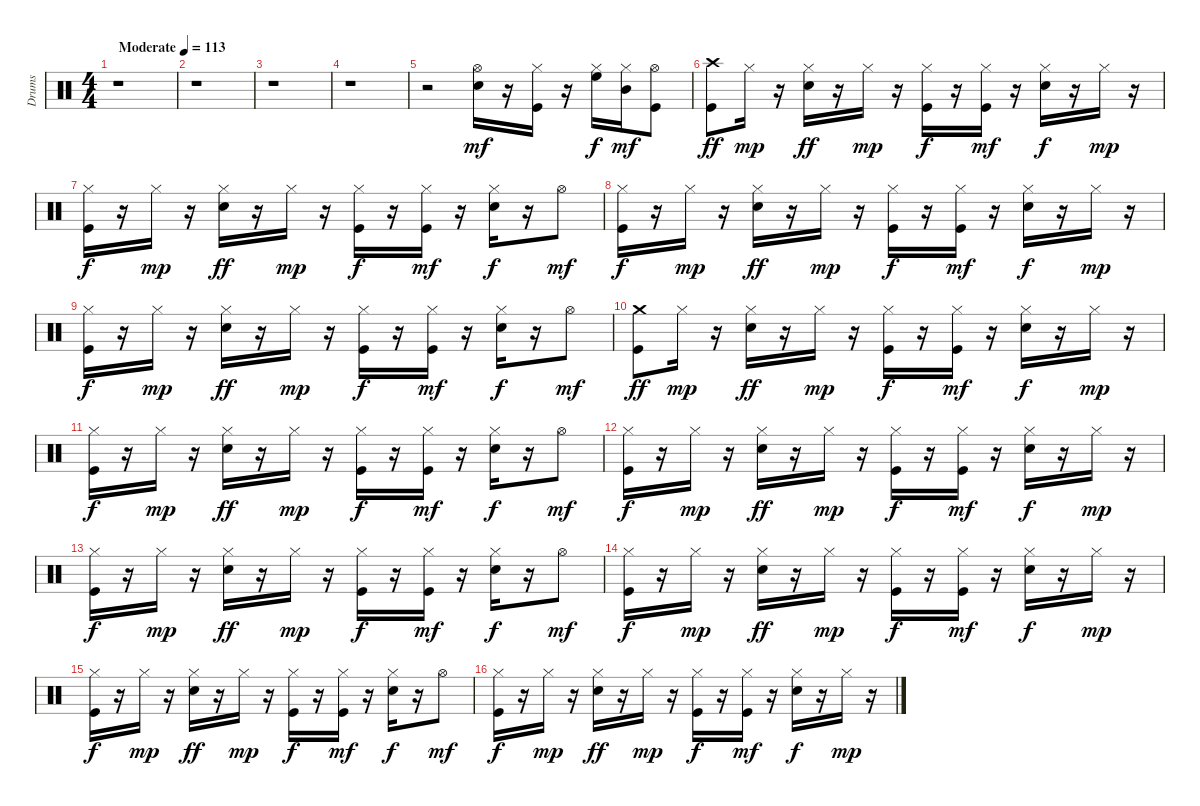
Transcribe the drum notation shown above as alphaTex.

\track ("Drums" "Drums") {instrument percussion}
\staff {score}
\articulation defaults
\ts (4 4)
\tempo (113 "Moderate")
\clef neutral
\ks c
r.1{dy mf} |
r.1 |
r.1 |
r.1 |
r.2 ("Electric Snare (hit)" "Hi-Hat (open)").16 r.16 ("Hi-Hat (closed)" "Kick (hit)").16 r.16 ("Hi-Hat (closed)" "High Floor Tom (hit)").16{dy f} ("Hi-Hat (closed)" "Mid Tom (hit)").16{dy mf} ("Hi-Hat (open)" "Kick (hit)").8 |
("Crash high (hit)" "Kick (hit)").8{dy ff} "Hi-Hat (closed)".16{dy mp} r.16 ("Electric Snare (hit)" "Hi-Hat (closed)").16{dy ff} r.16 "Hi-Hat (closed)".16{dy mp} r.16 ("Hi-Hat (closed)" "Kick (hit)").16{dy f} r.16 ("Hi-Hat (closed)" "Kick (hit)").16{dy mf} r.16 ("Electric Snare (hit)" "Hi-Hat (closed)").16{dy f} r.16 "Hi-Hat (closed)".16{dy mp} r.16 |
("Hi-Hat (closed)" "Kick (hit)").16{dy f} r.16 "Hi-Hat (closed)".16{dy mp} r.16 ("Electric Snare (hit)" "Hi-Hat (closed)").16{dy ff} r.16 "Hi-Hat (closed)".16{dy mp} r.16 ("Hi-Hat (closed)" "Kick (hit)").16{dy f} r.16 ("Hi-Hat (closed)" "Kick (hit)").16{dy mf} r.16 ("Electric Snare (hit)" "Hi-Hat (closed)").16{dy f} r.16 "Hi-Hat (open)".8{dy mf} |
("Hi-Hat (closed)" "Kick (hit)").16{dy f} r.16 "Hi-Hat (closed)".16{dy mp} r.16 ("Electric Snare (hit)" "Hi-Hat (closed)").16{dy ff} r.16 "Hi-Hat (closed)".16{dy mp} r.16 ("Hi-Hat (closed)" "Kick (hit)").16{dy f} r.16 ("Hi-Hat (closed)" "Kick (hit)").16{dy mf} r.16 ("Electric Snare (hit)" "Hi-Hat (closed)").16{dy f} r.16 "Hi-Hat (closed)".16{dy mp} r.16 |
("Hi-Hat (closed)" "Kick (hit)").16{dy f} r.16 "Hi-Hat (closed)".16{dy mp} r.16 ("Electric Snare (hit)" "Hi-Hat (closed)").16{dy ff} r.16 "Hi-Hat (closed)".16{dy mp} r.16 ("Hi-Hat (closed)" "Kick (hit)").16{dy f} r.16 ("Hi-Hat (closed)" "Kick (hit)").16{dy mf} r.16 ("Electric Snare (hit)" "Hi-Hat (closed)").16{dy f} r.16 "Hi-Hat (open)".8{dy mf} |
("Crash medium (hit)" "Kick (hit)").8{dy ff} "Hi-Hat (closed)".16{dy mp} r.16 ("Electric Snare (hit)" "Hi-Hat (closed)").16{dy ff} r.16 "Hi-Hat (closed)".16{dy mp} r.16 ("Hi-Hat (closed)" "Kick (hit)").16{dy f} r.16 ("Hi-Hat (closed)" "Kick (hit)").16{dy mf} r.16 ("Electric Snare (hit)" "Hi-Hat (closed)").16{dy f} r.16 "Hi-Hat (closed)".16{dy mp} r.16 |
("Hi-Hat (closed)" "Kick (hit)").16{dy f} r.16 "Hi-Hat (closed)".16{dy mp} r.16 ("Electric Snare (hit)" "Hi-Hat (closed)").16{dy ff} r.16 "Hi-Hat (closed)".16{dy mp} r.16 ("Hi-Hat (closed)" "Kick (hit)").16{dy f} r.16 ("Hi-Hat (closed)" "Kick (hit)").16{dy mf} r.16 ("Electric Snare (hit)" "Hi-Hat (closed)").16{dy f} r.16 "Hi-Hat (open)".8{dy mf} |
("Hi-Hat (closed)" "Kick (hit)").16{dy f} r.16 "Hi-Hat (closed)".16{dy mp} r.16 ("Electric Snare (hit)" "Hi-Hat (closed)").16{dy ff} r.16 "Hi-Hat (closed)".16{dy mp} r.16 ("Hi-Hat (closed)" "Kick (hit)").16{dy f} r.16 ("Hi-Hat (closed)" "Kick (hit)").16{dy mf} r.16 ("Electric Snare (hit)" "Hi-Hat (closed)").16{dy f} r.16 "Hi-Hat (closed)".16{dy mp} r.16 |
("Hi-Hat (closed)" "Kick (hit)").16{dy f} r.16 "Hi-Hat (closed)".16{dy mp} r.16 ("Electric Snare (hit)" "Hi-Hat (closed)").16{dy ff} r.16 "Hi-Hat (closed)".16{dy mp} r.16 ("Hi-Hat (closed)" "Kick (hit)").16{dy f} r.16 ("Hi-Hat (closed)" "Kick (hit)").16{dy mf} r.16 ("Electric Snare (hit)" "Hi-Hat (closed)").16{dy f} r.16 "Hi-Hat (open)".8{dy mf} |
("Hi-Hat (closed)" "Kick (hit)").16{dy f} r.16 "Hi-Hat (closed)".16{dy mp} r.16 ("Electric Snare (hit)" "Hi-Hat (closed)").16{dy ff} r.16 "Hi-Hat (closed)".16{dy mp} r.16 ("Hi-Hat (closed)" "Kick (hit)").16{dy f} r.16 ("Hi-Hat (closed)" "Kick (hit)").16{dy mf} r.16 ("Electric Snare (hit)" "Hi-Hat (closed)").16{dy f} r.16 "Hi-Hat (closed)".16{dy mp} r.16 |
("Hi-Hat (closed)" "Kick (hit)").16{dy f} r.16 "Hi-Hat (closed)".16{dy mp} r.16 ("Electric Snare (hit)" "Hi-Hat (closed)").16{dy ff} r.16 "Hi-Hat (closed)".16{dy mp} r.16 ("Hi-Hat (closed)" "Kick (hit)").16{dy f} r.16 ("Hi-Hat (closed)" "Kick (hit)").16{dy mf} r.16 ("Electric Snare (hit)" "Hi-Hat (closed)").16{dy f} r.16 "Hi-Hat (open)".8{dy mf} |
("Hi-Hat (closed)" "Kick (hit)").16{dy f} r.16 "Hi-Hat (closed)".16{dy mp} r.16 ("Electric Snare (hit)" "Hi-Hat (closed)").16{dy ff} r.16 "Hi-Hat (closed)".16{dy mp} r.16 ("Hi-Hat (closed)" "Kick (hit)").16{dy f} r.16 ("Hi-Hat (closed)" "Kick (hit)").16{dy mf} r.16 ("Electric Snare (hit)" "Hi-Hat (closed)").16{dy f} r.16 "Hi-Hat (closed)".16{dy mp} r.16
